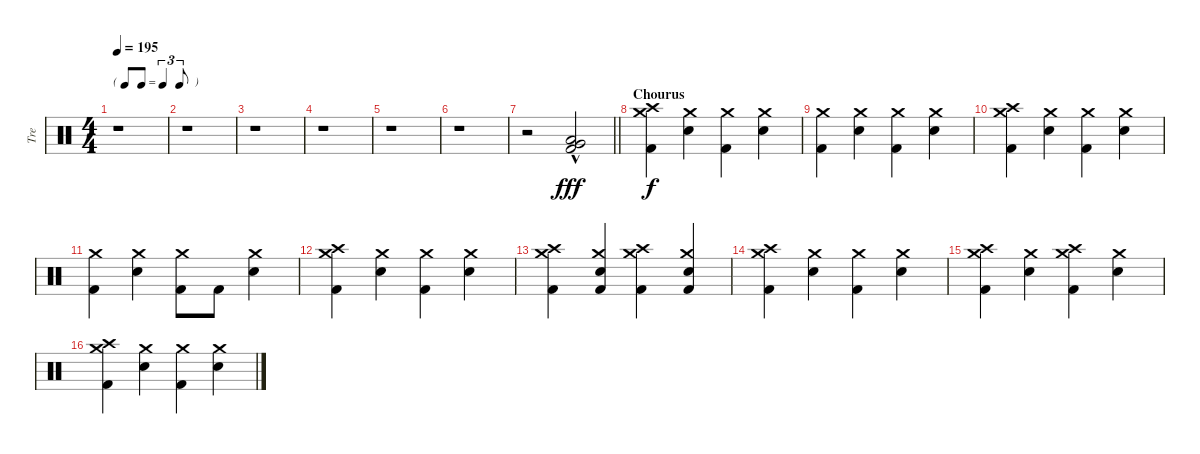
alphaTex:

\track ("Tre" "Tre") {instrument percussion}
\staff {score}
\articulation defaults
\ts (4 4)
\tf triplet8th
\tempo 195
\clef neutral
\ks c
r.1{dy fff} |
r.1 |
r.1 |
r.1 |
r.1 |
r.1 |
\barLineRight lightlight
r.2 ("Very Low Tom (hit)"{hac} "Low Floor Tom (hit)"{hac} "Kick (hit) 2"{hac}).2 |
\section ("" "Chourus")
("Crash medium (hit)" "Crash high (hit)" "Kick (hit) 2").4{dy f} ("Crash medium (hit)" "Snare (hit) 2").4 ("Crash medium (hit)" "Kick (hit) 2").4 ("Crash medium (hit)" "Snare (hit) 2").4 |
("Crash medium (hit)" "Kick (hit) 2").4 ("Crash medium (hit)" "Snare (hit) 2").4 ("Crash medium (hit)" "Kick (hit) 2").4 ("Crash medium (hit)" "Snare (hit) 2").4 |
("Crash medium (hit)" "Crash high (hit)" "Kick (hit) 2").4 ("Crash medium (hit)" "Snare (hit) 2").4 ("Crash medium (hit)" "Kick (hit) 2").4 ("Crash medium (hit)" "Snare (hit) 2").4 |
("Crash medium (hit)" "Kick (hit) 2").4 ("Crash medium (hit)" "Snare (hit) 2").4 ("Crash medium (hit)" "Kick (hit) 2").8 "Kick (hit) 2".8 ("Crash medium (hit)" "Snare (hit) 2").4 |
("Crash medium (hit)" "Crash high (hit)" "Kick (hit) 2").4 ("Crash medium (hit)" "Snare (hit) 2").4 ("Crash medium (hit)" "Kick (hit) 2").4 ("Crash medium (hit)" "Snare (hit) 2").4 |
("Crash medium (hit)" "Crash high (hit)" "Kick (hit) 2").4 ("Crash medium (hit)" "Snare (hit) 2" "Kick (hit) 2").4 ("Crash medium (hit)" "Crash high (hit)" "Kick (hit) 2").4 ("Crash medium (hit)" "Snare (hit) 2" "Kick (hit) 2").4 |
("Crash medium (hit)" "Crash high (hit)" "Kick (hit) 2").4 ("Crash medium (hit)" "Snare (hit) 2").4 ("Crash medium (hit)" "Kick (hit) 2").4 ("Crash medium (hit)" "Snare (hit) 2").4 |
("Crash medium (hit)" "Crash high (hit)" "Kick (hit) 2").4 ("Crash medium (hit)" "Snare (hit) 2").4 ("Crash medium (hit)" "Crash high (hit)" "Kick (hit) 2").4 ("Crash medium (hit)" "Snare (hit) 2").4 |
("Crash medium (hit)" "Crash high (hit)" "Kick (hit) 2").4 ("Crash medium (hit)" "Snare (hit) 2").4 ("Crash medium (hit)" "Kick (hit) 2").4 ("Crash medium (hit)" "Snare (hit) 2").4
